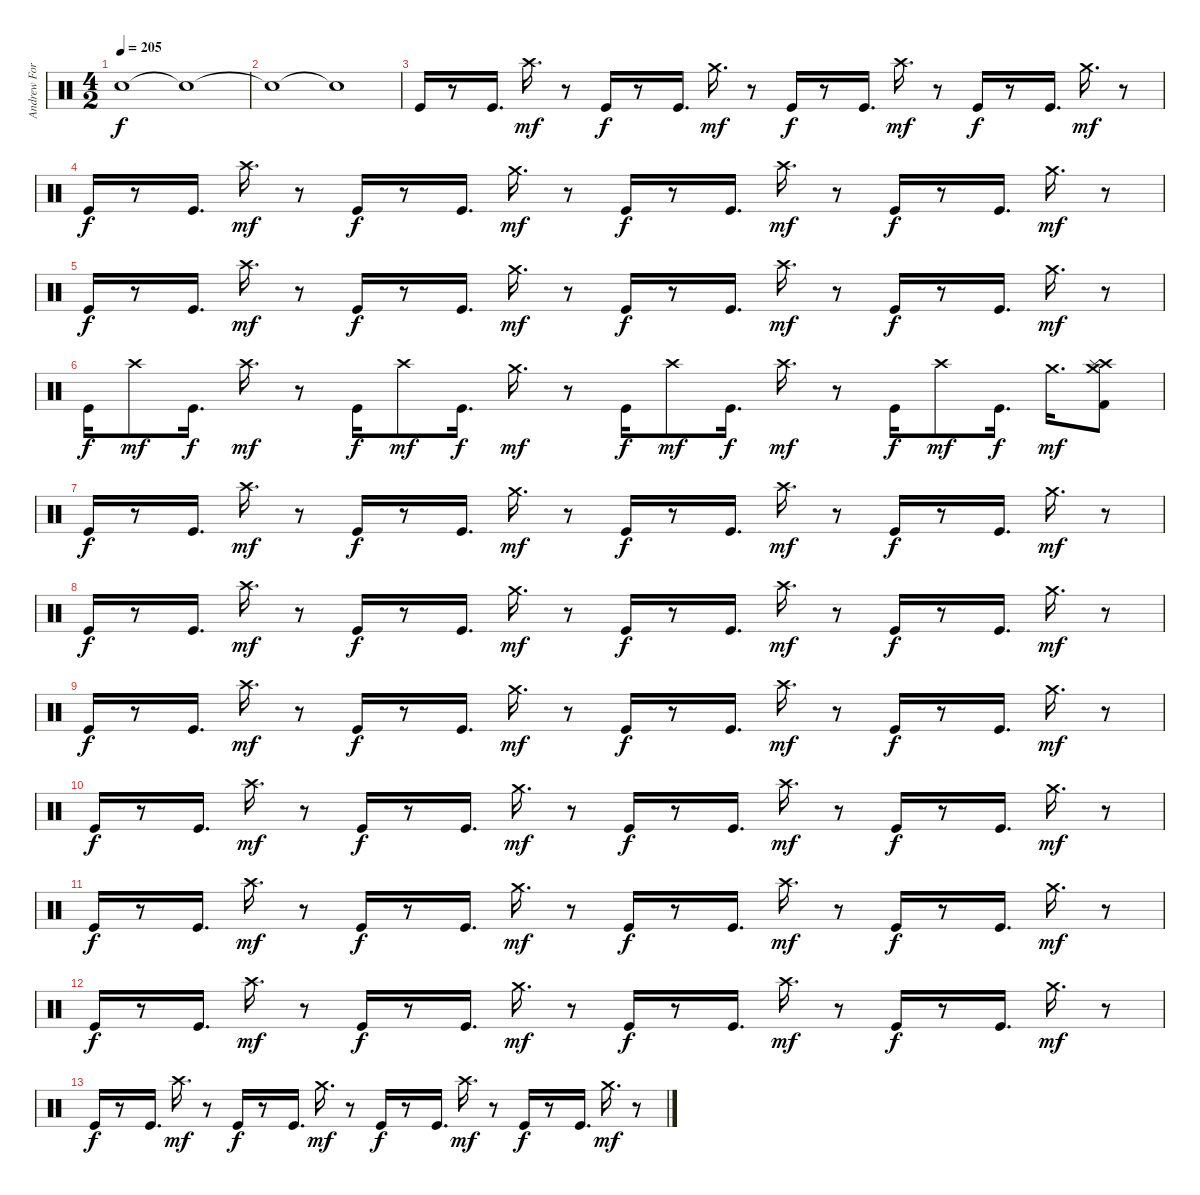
\track ("Andrew Forsman" "Andrew For") {instrument percussion}
\staff {score}
\articulation defaults
\ts (4 2)
\tempo 205
\clef neutral
\ks c "Snare (hit)"{t}.1{dy f} "Snare (hit)"{t}.1
|
"Snare (hit)"{t}.1 "Snare (hit)"{t}.1 |
"Kick (hit)".16{volume 10} r.8 "Kick (hit)".16{d} "Crash high (hit)".16{d dy mf} r.8 "Kick (hit)".16{dy f} r.8 "Kick (hit)".16{d} "Crash medium (hit)".16{d dy mf} r.8 "Kick (hit)".16{dy f} r.8 "Kick (hit)".16{d} "Crash high (hit)".16{d dy mf} r.8 "Kick (hit)".16{dy f} r.8 "Kick (hit)".16{d} "Crash medium (hit)".16{d dy mf} r.8 |
"Kick (hit)".16{dy f} r.8 "Kick (hit)".16{d} "Crash high (hit)".16{d dy mf} r.8 "Kick (hit)".16{dy f} r.8 "Kick (hit)".16{d} "Crash medium (hit)".16{d dy mf} r.8 "Kick (hit)".16{dy f} r.8 "Kick (hit)".16{d} "Crash high (hit)".16{d dy mf} r.8 "Kick (hit)".16{dy f} r.8 "Kick (hit)".16{d} "Crash medium (hit)".16{d dy mf} r.8 |
"Kick (hit)".16{dy f} r.8 "Kick (hit)".16{d} "Crash high (hit)".16{d dy mf} r.8 "Kick (hit)".16{dy f} r.8 "Kick (hit)".16{d} "Crash medium (hit)".16{d dy mf} r.8 "Kick (hit)".16{dy f} r.8 "Kick (hit)".16{d} "Crash high (hit)".16{d dy mf} r.8 "Kick (hit)".16{dy f} r.8 "Kick (hit)".16{d} "Crash medium (hit)".16{d dy mf} r.8 |
"Kick (hit)".16{dy f} "Crash high (hit)".8{dy mf} "Kick (hit)".16{d dy f} "Crash high (hit)".16{d dy mf} r.8 "Kick (hit)".16{dy f} "Crash high (hit)".8{dy mf} "Kick (hit)".16{d dy f} "Crash medium (hit)".16{d dy mf} r.8 "Kick (hit)".16{dy f} "Crash high (hit)".8{dy mf} "Kick (hit)".16{d dy f} "Crash high (hit)".16{d dy mf} r.8 "Kick (hit)".16{dy f} "Crash high (hit)".8{dy mf} "Kick (hit)".16{d dy f} "Crash medium (hit)".16{d dy mf} ("Crash high (hit)" "Kick (hit) 2" "Crash medium (hit)" "Splash (hit)").8 |
"Kick (hit)".16{dy f} r.8 "Kick (hit)".16{d} "Crash high (hit)".16{d dy mf} r.8 "Kick (hit)".16{dy f} r.8 "Kick (hit)".16{d} "Crash medium (hit)".16{d dy mf} r.8 "Kick (hit)".16{dy f} r.8 "Kick (hit)".16{d} "Crash high (hit)".16{d dy mf} r.8 "Kick (hit)".16{dy f} r.8 "Kick (hit)".16{d} "Crash medium (hit)".16{d dy mf} r.8 |
"Kick (hit)".16{dy f} r.8 "Kick (hit)".16{d} "Crash high (hit)".16{d dy mf} r.8 "Kick (hit)".16{dy f} r.8 "Kick (hit)".16{d} "Crash medium (hit)".16{d dy mf} r.8 "Kick (hit)".16{dy f} r.8 "Kick (hit)".16{d} "Crash high (hit)".16{d dy mf} r.8 "Kick (hit)".16{dy f} r.8 "Kick (hit)".16{d} "Crash medium (hit)".16{d dy mf} r.8 |
"Kick (hit)".16{dy f} r.8 "Kick (hit)".16{d} "Crash high (hit)".16{d dy mf} r.8 "Kick (hit)".16{dy f} r.8 "Kick (hit)".16{d} "Crash medium (hit)".16{d dy mf} r.8 "Kick (hit)".16{dy f} r.8 "Kick (hit)".16{d} "Crash high (hit)".16{d dy mf} r.8 "Kick (hit)".16{dy f} r.8 "Kick (hit)".16{d} "Crash medium (hit)".16{d dy mf} r.8 |
"Kick (hit)".16{dy f} r.8 "Kick (hit)".16{d} "Crash high (hit)".16{d dy mf} r.8 "Kick (hit)".16{dy f} r.8 "Kick (hit)".16{d} "Crash medium (hit)".16{d dy mf} r.8 "Kick (hit)".16{dy f} r.8 "Kick (hit)".16{d} "Crash high (hit)".16{d dy mf} r.8 "Kick (hit)".16{dy f} r.8 "Kick (hit)".16{d} "Crash medium (hit)".16{d dy mf} r.8 |
"Kick (hit)".16{dy f volume 14} r.8 "Kick (hit)".16{d} "Crash high (hit)".16{d dy mf} r.8 "Kick (hit)".16{dy f} r.8 "Kick (hit)".16{d} "Crash medium (hit)".16{d dy mf} r.8 "Kick (hit)".16{dy f} r.8 "Kick (hit)".16{d} "Crash high (hit)".16{d dy mf} r.8 "Kick (hit)".16{dy f} r.8 "Kick (hit)".16{d} "Crash medium (hit)".16{d dy mf} r.8 |
"Kick (hit)".16{dy f} r.8 "Kick (hit)".16{d} "Crash high (hit)".16{d dy mf} r.8 "Kick (hit)".16{dy f} r.8 "Kick (hit)".16{d} "Crash medium (hit)".16{d dy mf} r.8 "Kick (hit)".16{dy f} r.8 "Kick (hit)".16{d} "Crash high (hit)".16{d dy mf} r.8 "Kick (hit)".16{dy f} r.8 "Kick (hit)".16{d} "Crash medium (hit)".16{d dy mf} r.8 |
"Kick (hit)".16{dy f} r.8 "Kick (hit)".16{d} "Crash high (hit)".16{d dy mf} r.8 "Kick (hit)".16{dy f} r.8 "Kick (hit)".16{d} "Crash medium (hit)".16{d dy mf} r.8 "Kick (hit)".16{dy f} r.8 "Kick (hit)".16{d} "Crash high (hit)".16{d dy mf} r.8 "Kick (hit)".16{dy f} r.8 "Kick (hit)".16{d} "Crash medium (hit)".16{d dy mf} r.8
